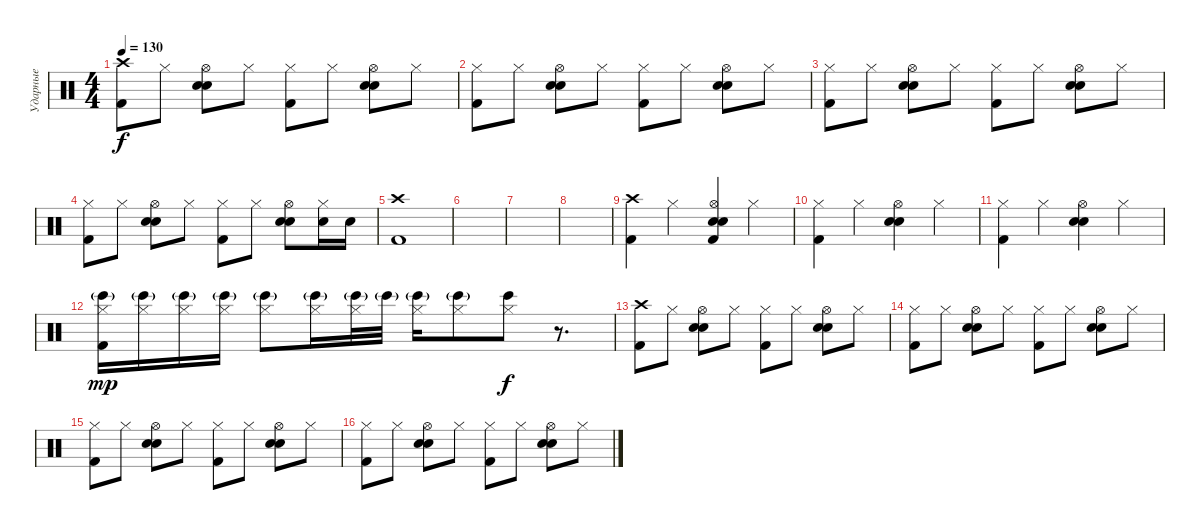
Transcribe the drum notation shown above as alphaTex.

\track ("Ударные" "Ударные") {instrument percussion}
\staff {score}
\articulation defaults
\ts (4 4)
\tempo 130
\clef neutral
\ks c
("Crash high (hit)" "Kick (hit) 2").8{dy f} "Hi-Hat (closed)".8 ("Hi-Hat (open)" "Hand Clap (hit)" "Snare (hit) 2").8 "Hi-Hat (closed)".8 ("Hi-Hat (closed)" "Kick (hit) 2").8 "Hi-Hat (closed)".8 ("Hi-Hat (open)" "Hand Clap (hit)" "Snare (hit) 2").8 "Hi-Hat (closed)".8 |
("Hi-Hat (closed)" "Kick (hit) 2").8 "Hi-Hat (closed)".8 ("Hi-Hat (open)" "Hand Clap (hit)" "Snare (hit) 2").8 "Hi-Hat (closed)".8 ("Hi-Hat (closed)" "Kick (hit) 2").8 "Hi-Hat (closed)".8 ("Hi-Hat (open)" "Hand Clap (hit)" "Snare (hit) 2").8 "Hi-Hat (closed)".8 |
("Hi-Hat (closed)" "Kick (hit) 2").8 "Hi-Hat (closed)".8 ("Hi-Hat (open)" "Hand Clap (hit)" "Snare (hit) 2").8 "Hi-Hat (closed)".8 ("Hi-Hat (closed)" "Kick (hit) 2").8 "Hi-Hat (closed)".8 ("Hi-Hat (open)" "Hand Clap (hit)" "Snare (hit) 2").8 "Hi-Hat (closed)".8 |
("Hi-Hat (closed)" "Kick (hit) 2").8 "Hi-Hat (closed)".8 ("Hi-Hat (open)" "Hand Clap (hit)" "Snare (hit) 2").8 "Hi-Hat (closed)".8 ("Hi-Hat (closed)" "Kick (hit) 2").8 "Hi-Hat (closed)".8 ("Hi-Hat (open)" "Hand Clap (hit)" "Snare (hit) 2").8 ("Hi-Hat (closed)" "Snare (hit) 2").16 "Snare (hit) 2".16 |
("Crash high (hit)" "Kick (hit) 2").1 |
|
|
|
("Crash high (hit)" "Kick (hit) 2").4 "Hi-Hat (closed)".4 ("Hi-Hat (open)" "Hand Clap (hit)" "Snare (hit) 2" "Kick (hit) 2").4 "Hi-Hat (closed)".4 |
("Hi-Hat (closed)" "Kick (hit) 2").4 "Hi-Hat (closed)".4 ("Hi-Hat (open)" "Hand Clap (hit)" "Snare (hit) 2").4 "Hi-Hat (closed)".4 |
("Hi-Hat (closed)" "Kick (hit) 2").4 "Hi-Hat (closed)".4 ("Hi-Hat (open)" "Hand Clap (hit)" "Snare (hit) 2").4 "Hi-Hat (closed)".4 |
("Bongo High (hit)"{g} "Hi-Hat (closed)" "Kick (hit) 2").16{dy mp} ("Bongo High (hit)"{g} "Hi-Hat (closed)").16 ("Bongo High (hit)"{g} "Hi-Hat (closed)").16 ("Bongo High (hit)"{g} "Hi-Hat (closed)").16 ("Bongo High (hit)"{g} "Hi-Hat (closed)").8 ("Bongo High (hit)"{g} "Hi-Hat (closed)").16 ("Bongo High (hit)"{g} "Hi-Hat (closed)").32 "Bongo High (hit)"{g}.32 ("Bongo High (hit)"{g} "Hi-Hat (closed)").16 ("Bongo High (hit)"{g} "Hi-Hat (closed)").8 ("Bongo High (hit)" "Hi-Hat (closed)").8{dy f} r.8{d} |
("Crash high (hit)" "Kick (hit) 2").8{volume 14} "Hi-Hat (closed)".8 ("Hi-Hat (open)" "Hand Clap (hit)" "Snare (hit) 2").8 "Hi-Hat (closed)".8 ("Hi-Hat (closed)" "Kick (hit) 2").8 "Hi-Hat (closed)".8 ("Hi-Hat (open)" "Hand Clap (hit)" "Snare (hit) 2").8 "Hi-Hat (closed)".8 |
("Hi-Hat (closed)" "Kick (hit) 2").8 "Hi-Hat (closed)".8 ("Hi-Hat (open)" "Hand Clap (hit)" "Snare (hit) 2").8 "Hi-Hat (closed)".8 ("Hi-Hat (closed)" "Kick (hit) 2").8 "Hi-Hat (closed)".8 ("Hi-Hat (open)" "Hand Clap (hit)" "Snare (hit) 2").8 "Hi-Hat (closed)".8 |
("Hi-Hat (closed)" "Kick (hit) 2").8 "Hi-Hat (closed)".8 ("Hi-Hat (open)" "Hand Clap (hit)" "Snare (hit) 2").8 "Hi-Hat (closed)".8 ("Hi-Hat (closed)" "Kick (hit) 2").8 "Hi-Hat (closed)".8 ("Hi-Hat (open)" "Hand Clap (hit)" "Snare (hit) 2").8 "Hi-Hat (closed)".8 |
("Hi-Hat (closed)" "Kick (hit) 2").8 "Hi-Hat (closed)".8 ("Hi-Hat (open)" "Hand Clap (hit)" "Snare (hit) 2").8 "Hi-Hat (closed)".8 ("Hi-Hat (closed)" "Kick (hit) 2").8 "Hi-Hat (closed)".8 ("Hi-Hat (open)" "Hand Clap (hit)" "Snare (hit) 2").8 "Hi-Hat (closed)".8
